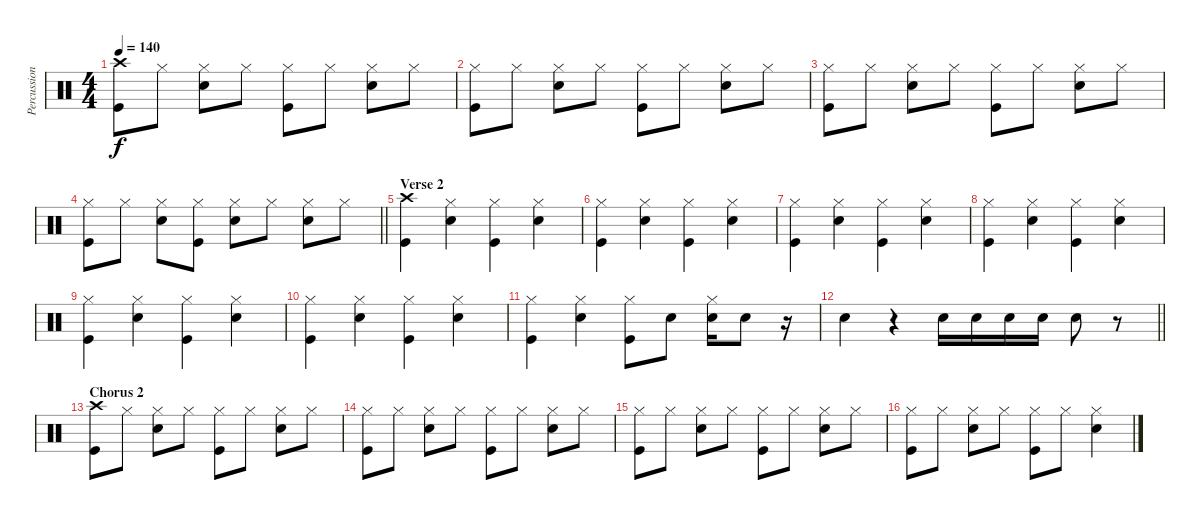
\track ("Percussion" "Percussion") {instrument percussion}
\staff {score}
\articulation defaults
\ts (4 4)
\tempo 140
\clef neutral
\ks c
("Crash high (hit)" "Kick (hit)").8{dy f} "Hi-Hat (closed)".8 ("Snare (hit) 2" "Hi-Hat (closed)").8 "Hi-Hat (closed)".8 ("Kick (hit)" "Hi-Hat (closed)").8 "Hi-Hat (closed)".8 ("Hi-Hat (closed)" "Snare (hit) 2").8 "Hi-Hat (closed)".8 |
("Hi-Hat (closed)" "Kick (hit)").8 "Hi-Hat (closed)".8 ("Snare (hit) 2" "Hi-Hat (closed)").8 "Hi-Hat (closed)".8 ("Kick (hit)" "Hi-Hat (closed)").8 "Hi-Hat (closed)".8 ("Hi-Hat (closed)" "Snare (hit) 2").8 "Hi-Hat (closed)".8 |
("Hi-Hat (closed)" "Kick (hit)").8 "Hi-Hat (closed)".8 ("Snare (hit) 2" "Hi-Hat (closed)").8 "Hi-Hat (closed)".8 ("Kick (hit)" "Hi-Hat (closed)").8 "Hi-Hat (closed)".8 ("Hi-Hat (closed)" "Snare (hit) 2").8 "Hi-Hat (closed)".8 |
\barLineRight lightlight
("Hi-Hat (closed)" "Kick (hit)").8 "Hi-Hat (closed)".8 ("Snare (hit) 2" "Hi-Hat (closed)").8 ("Hi-Hat (closed)" "Kick (hit)").8 ("Snare (hit) 2" "Hi-Hat (closed)").8 "Hi-Hat (closed)".8 ("Hi-Hat (closed)" "Snare (hit) 2").8 "Hi-Hat (closed)".8 |
\section ("" "Verse 2")
("Kick (hit)" "Crash high (hit)").4 ("Snare (hit) 2" "Hi-Hat (closed)").4 ("Kick (hit)" "Hi-Hat (closed)").4 ("Snare (hit) 2" "Hi-Hat (closed)").4 |
("Kick (hit)" "Hi-Hat (closed)").4 ("Snare (hit) 2" "Hi-Hat (closed)").4 ("Kick (hit)" "Hi-Hat (closed)").4 ("Snare (hit) 2" "Hi-Hat (closed)").4 |
("Kick (hit)" "Hi-Hat (closed)").4 ("Snare (hit) 2" "Hi-Hat (closed)").4 ("Kick (hit)" "Hi-Hat (closed)").4 ("Snare (hit) 2" "Hi-Hat (closed)").4 |
("Kick (hit)" "Hi-Hat (closed)").4 ("Snare (hit) 2" "Hi-Hat (closed)").4 ("Kick (hit)" "Hi-Hat (closed)").4 ("Snare (hit) 2" "Hi-Hat (closed)").4 |
("Kick (hit)" "Hi-Hat (closed)").4 ("Snare (hit) 2" "Hi-Hat (closed)").4 ("Kick (hit)" "Hi-Hat (closed)").4 ("Snare (hit) 2" "Hi-Hat (closed)").4 |
("Kick (hit)" "Hi-Hat (closed)").4 ("Snare (hit) 2" "Hi-Hat (closed)").4 ("Kick (hit)" "Hi-Hat (closed)").4 ("Snare (hit) 2" "Hi-Hat (closed)").4 |
("Kick (hit)" "Hi-Hat (closed)").4 ("Snare (hit) 2" "Hi-Hat (closed)").4 ("Kick (hit)" "Hi-Hat (closed)").8 "Snare (hit) 2".8 ("Snare (hit) 2" "Hi-Hat (closed)").16 "Snare (hit) 2".8 r.16 |
\barLineRight lightlight "Snare (hit) 2".4
r.4 "Snare (hit) 2".16 "Snare (hit) 2".16 "Snare (hit) 2".16 "Snare (hit) 2".16 "Snare (hit) 2".8 r.8 |
\section ("" "Chorus 2")
("Crash high (hit)" "Kick (hit)").8 "Hi-Hat (closed)".8 ("Snare (hit) 2" "Hi-Hat (closed)").8 "Hi-Hat (closed)".8 ("Kick (hit)" "Hi-Hat (closed)").8 "Hi-Hat (closed)".8 ("Hi-Hat (closed)" "Snare (hit) 2").8 "Hi-Hat (closed)".8 |
("Hi-Hat (closed)" "Kick (hit)").8 "Hi-Hat (closed)".8 ("Snare (hit) 2" "Hi-Hat (closed)").8 "Hi-Hat (closed)".8 ("Kick (hit)" "Hi-Hat (closed)").8 "Hi-Hat (closed)".8 ("Hi-Hat (closed)" "Snare (hit) 2").8 "Hi-Hat (closed)".8 |
("Hi-Hat (closed)" "Kick (hit)").8 "Hi-Hat (closed)".8 ("Snare (hit) 2" "Hi-Hat (closed)").8 "Hi-Hat (closed)".8 ("Kick (hit)" "Hi-Hat (closed)").8 "Hi-Hat (closed)".8 ("Hi-Hat (closed)" "Snare (hit) 2").8 "Hi-Hat (closed)".8 |
("Hi-Hat (closed)" "Kick (hit)").8 "Hi-Hat (closed)".8 ("Snare (hit) 2" "Hi-Hat (closed)").8 "Hi-Hat (closed)".8 ("Kick (hit)" "Hi-Hat (closed)").8 "Hi-Hat (closed)".8 ("Hi-Hat (closed)" "Snare (hit) 2").4
